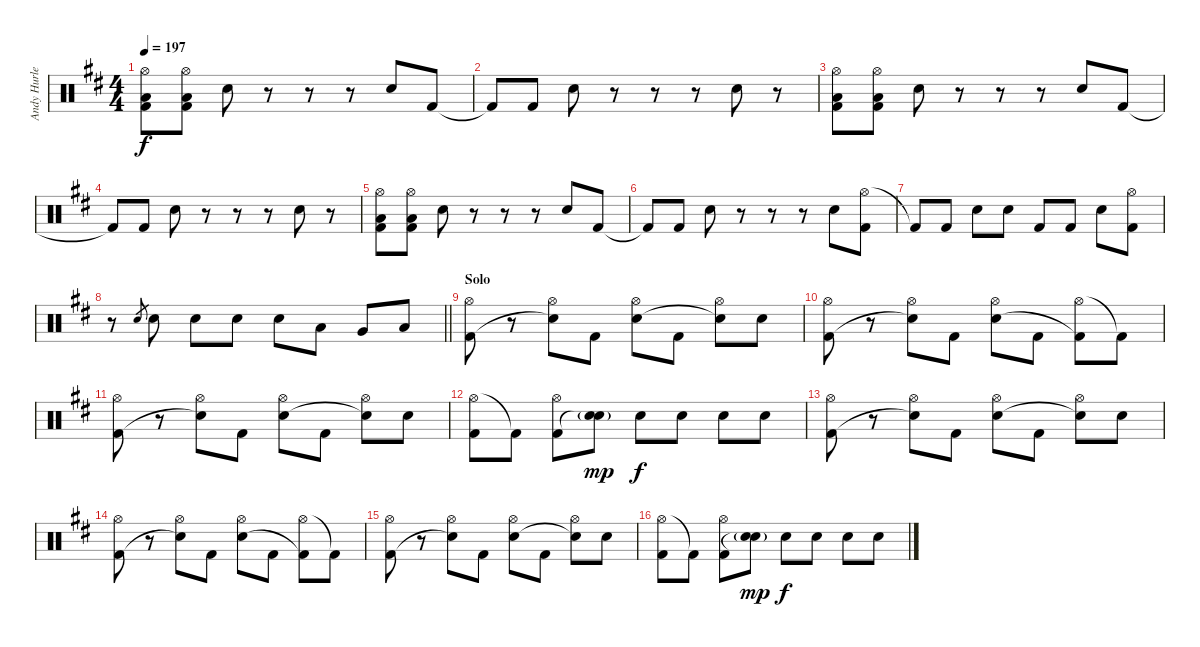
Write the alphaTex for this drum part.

\track ("Andy Hurley (Drums)" "Andy Hurle") {instrument percussion}
\staff {score}
\articulation defaults
\ts (4 4)
\tempo 197
\clef neutral
\ks d
("Hi-Hat (open)" "Low Floor Tom (hit)" "Kick (hit) 2").8{dy f} ("Hi-Hat (open)" "Low Floor Tom (hit)" "Kick (hit) 2").8 "Electric Snare (hit)".8 r.8 r.8 r.8 "Electric Snare (hit)".8 "Kick (hit) 2".8 |
"Kick (hit) 2"{t}.8 "Kick (hit) 2".8 "Electric Snare (hit)".8 r.8 r.8 r.8 "Electric Snare (hit)".8 r.8 |
("Hi-Hat (open)" "Low Floor Tom (hit)" "Kick (hit) 2").8 ("Hi-Hat (open)" "Low Floor Tom (hit)" "Kick (hit) 2").8 "Electric Snare (hit)".8 r.8 r.8 r.8 "Electric Snare (hit)".8 "Kick (hit) 2".8 |
"Kick (hit) 2"{t}.8 "Kick (hit) 2".8 "Electric Snare (hit)".8 r.8 r.8 r.8 "Electric Snare (hit)".8 r.8 |
("Hi-Hat (open)" "Low Floor Tom (hit)" "Kick (hit) 2").8 ("Hi-Hat (open)" "Low Floor Tom (hit)" "Kick (hit) 2").8 "Electric Snare (hit)".8 r.8 r.8 r.8 "Electric Snare (hit)".8 "Kick (hit) 2".8 |
"Kick (hit) 2"{t}.8 "Kick (hit) 2".8 "Electric Snare (hit)".8 r.8 r.8 r.8 "Electric Snare (hit)".8 ("Hi-Hat (open)" "Kick (hit) 2").8 |
"Kick (hit) 2"{t}.8 "Kick (hit) 2".8 "Electric Snare (hit)".8 "Electric Snare (hit)".8 "Kick (hit) 2".8 "Kick (hit) 2".8 "Electric Snare (hit)".8 ("Hi-Hat (open)" "Kick (hit) 2").8 |
\barLineRight lightlight
r.8 "Electric Snare (hit)".8{gr} "Electric Snare (hit)".8 "Electric Snare (hit)".8 "Electric Snare (hit)".8 "Electric Snare (hit)".8 "Low Tom (hit)".8 "Very Low Tom (hit)".8 "Low Floor Tom (hit)".8 |
\section ("" "Solo")
("Hi-Hat (open)" "Kick (hit) 2").8 r.8 ("Hi-Hat (open)" "Snare (hit)"{t}).8 "Kick (hit) 2".8 ("Hi-Hat (open)" "Electric Snare (hit)").8 "Kick (hit) 2".8 ("Hi-Hat (open)" "Snare (hit)"{t}).8 "Electric Snare (hit)".8 |
("Hi-Hat (open)" "Kick (hit) 2").8 r.8 ("Hi-Hat (open)" "Snare (hit)"{t}).8 "Kick (hit) 2".8 ("Hi-Hat (open)" "Electric Snare (hit)").8 "Kick (hit) 2".8 ("Hi-Hat (open)" "Kick (hit) 2"{t}).8 "Kick (hit) 2"{t}.8 |
("Hi-Hat (open)" "Kick (hit) 2").8 r.8 ("Hi-Hat (open)" "Snare (hit)"{t}).8 "Kick (hit) 2".8 ("Hi-Hat (open)" "Electric Snare (hit)").8 "Kick (hit) 2".8 ("Hi-Hat (open)" "Snare (hit)"{t}).8 "Electric Snare (hit)".8 |
("Hi-Hat (open)" "Kick (hit) 2").8 "Kick (hit) 2"{t}.8 ("Hi-Hat (open)" "Kick (hit) 2").8 ("Electric Snare (hit)"{g} "Snare (hit)"{t}).8{dy mp} "Electric Snare (hit)".8{dy f} "Electric Snare (hit)".8 "Electric Snare (hit)".8 "Electric Snare (hit)".8 |
("Hi-Hat (open)" "Kick (hit) 2").8 r.8 ("Hi-Hat (open)" "Snare (hit)"{t}).8 "Kick (hit) 2".8 ("Hi-Hat (open)" "Electric Snare (hit)").8 "Kick (hit) 2".8 ("Hi-Hat (open)" "Snare (hit)"{t}).8 "Electric Snare (hit)".8 |
("Hi-Hat (open)" "Kick (hit) 2").8 r.8 ("Hi-Hat (open)" "Snare (hit)"{t}).8 "Kick (hit) 2".8 ("Hi-Hat (open)" "Electric Snare (hit)").8 "Kick (hit) 2".8 ("Hi-Hat (open)" "Kick (hit) 2"{t}).8 "Kick (hit) 2"{t}.8 |
("Hi-Hat (open)" "Kick (hit) 2").8 r.8 ("Hi-Hat (open)" "Snare (hit)"{t}).8 "Kick (hit) 2".8 ("Hi-Hat (open)" "Electric Snare (hit)").8 "Kick (hit) 2".8 ("Hi-Hat (open)" "Snare (hit)"{t}).8 "Electric Snare (hit)".8 |
("Hi-Hat (open)" "Kick (hit) 2").8 "Kick (hit) 2"{t}.8 ("Hi-Hat (open)" "Kick (hit) 2").8 ("Electric Snare (hit)"{g} "Snare (hit)"{t}).8{dy mp} "Electric Snare (hit)".8{dy f} "Electric Snare (hit)".8 "Electric Snare (hit)".8 "Electric Snare (hit)".8
